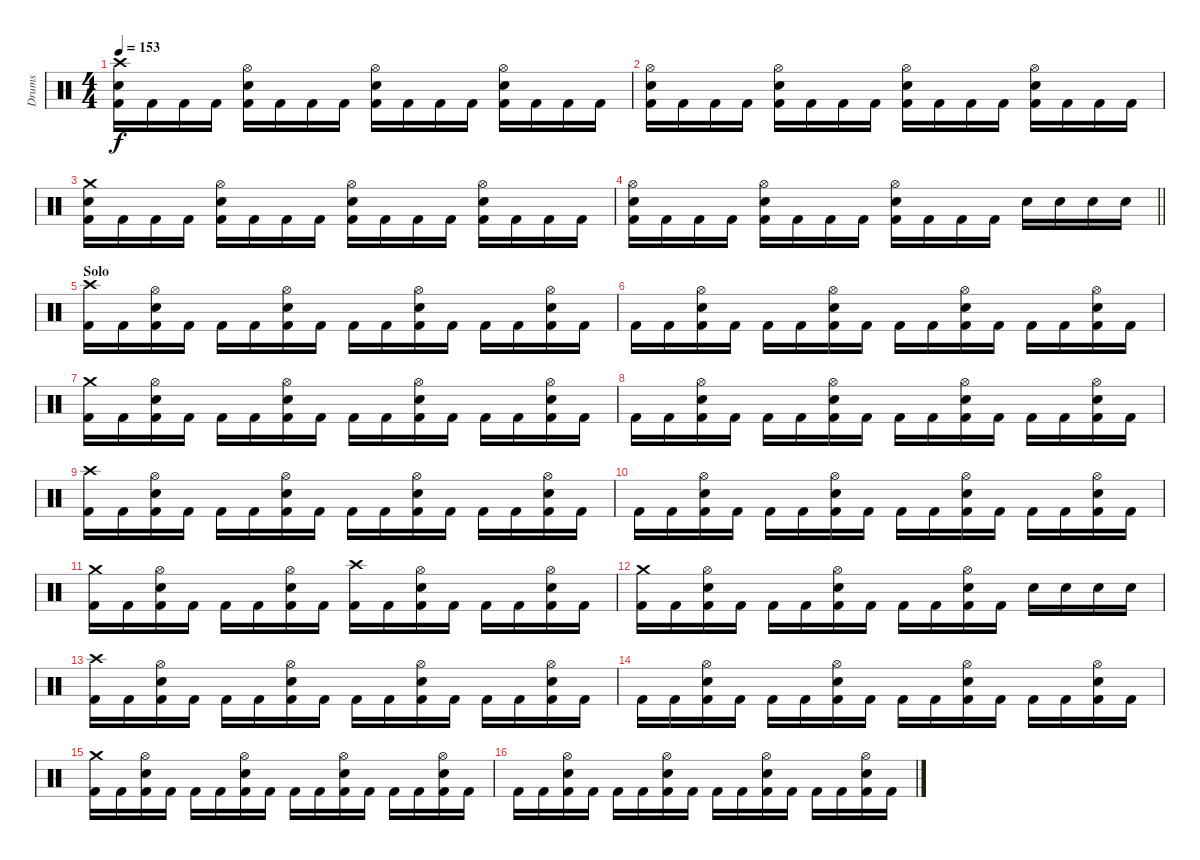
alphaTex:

\track ("Drums" "Drums") {instrument percussion}
\staff {score}
\articulation defaults
\ts (4 4)
\tempo 153
\clef neutral
\ks c
("Crash high (hit)" "Snare (hit) 2" "Kick (hit) 2").16{dy f} "Kick (hit) 2".16 "Kick (hit) 2".16 "Kick (hit) 2".16 ("Hi-Hat (open)" "Snare (hit) 2" "Kick (hit) 2").16 "Kick (hit) 2".16 "Kick (hit) 2".16 "Kick (hit) 2".16 ("Hi-Hat (open)" "Snare (hit) 2" "Kick (hit) 2").16 "Kick (hit) 2".16 "Kick (hit) 2".16 "Kick (hit) 2".16 ("Hi-Hat (open)" "Snare (hit) 2" "Kick (hit) 2").16 "Kick (hit) 2".16 "Kick (hit) 2".16 "Kick (hit) 2".16 |
("Hi-Hat (open)" "Snare (hit) 2" "Kick (hit) 2").16 "Kick (hit) 2".16 "Kick (hit) 2".16 "Kick (hit) 2".16 ("Hi-Hat (open)" "Snare (hit) 2" "Kick (hit) 2").16 "Kick (hit) 2".16 "Kick (hit) 2".16 "Kick (hit) 2".16 ("Hi-Hat (open)" "Snare (hit) 2" "Kick (hit) 2").16 "Kick (hit) 2".16 "Kick (hit) 2".16 "Kick (hit) 2".16 ("Hi-Hat (open)" "Snare (hit) 2" "Kick (hit) 2").16 "Kick (hit) 2".16 "Kick (hit) 2".16 "Kick (hit) 2".16 |
("Crash medium (hit)" "Snare (hit) 2" "Kick (hit) 2").16 "Kick (hit) 2".16 "Kick (hit) 2".16 "Kick (hit) 2".16 ("Hi-Hat (open)" "Snare (hit) 2" "Kick (hit) 2").16 "Kick (hit) 2".16 "Kick (hit) 2".16 "Kick (hit) 2".16 ("Hi-Hat (open)" "Snare (hit) 2" "Kick (hit) 2").16 "Kick (hit) 2".16 "Kick (hit) 2".16 "Kick (hit) 2".16 ("Hi-Hat (open)" "Snare (hit) 2" "Kick (hit) 2").16 "Kick (hit) 2".16 "Kick (hit) 2".16 "Kick (hit) 2".16 |
\barLineRight lightlight
("Hi-Hat (open)" "Snare (hit) 2" "Kick (hit) 2").16 "Kick (hit) 2".16 "Kick (hit) 2".16 "Kick (hit) 2".16 ("Hi-Hat (open)" "Snare (hit) 2" "Kick (hit) 2").16 "Kick (hit) 2".16 "Kick (hit) 2".16 "Kick (hit) 2".16 ("Hi-Hat (open)" "Snare (hit) 2" "Kick (hit) 2").16 "Kick (hit) 2".16 "Kick (hit) 2".16 "Kick (hit) 2".16 "Snare (hit) 2".16 "Snare (hit) 2".16 "Snare (hit) 2".16 "Snare (hit) 2".16 |
\section ("" "Solo")
("Crash high (hit)" "Kick (hit) 2").16 "Kick (hit) 2".16 ("Hi-Hat (open)" "Snare (hit) 2" "Kick (hit) 2").16 "Kick (hit) 2".16 "Kick (hit) 2".16 "Kick (hit) 2".16 ("Hi-Hat (open)" "Snare (hit) 2" "Kick (hit) 2").16 "Kick (hit) 2".16 "Kick (hit) 2".16 "Kick (hit) 2".16 ("Hi-Hat (open)" "Snare (hit) 2" "Kick (hit) 2").16 "Kick (hit) 2".16 "Kick (hit) 2".16 "Kick (hit) 2".16 ("Hi-Hat (open)" "Snare (hit) 2" "Kick (hit) 2").16 "Kick (hit) 2".16 |
"Kick (hit) 2".16 "Kick (hit) 2".16 ("Hi-Hat (open)" "Snare (hit) 2" "Kick (hit) 2").16 "Kick (hit) 2".16 "Kick (hit) 2".16 "Kick (hit) 2".16 ("Hi-Hat (open)" "Snare (hit) 2" "Kick (hit) 2").16 "Kick (hit) 2".16 "Kick (hit) 2".16 "Kick (hit) 2".16 ("Hi-Hat (open)" "Snare (hit) 2" "Kick (hit) 2").16 "Kick (hit) 2".16 "Kick (hit) 2".16 "Kick (hit) 2".16 ("Hi-Hat (open)" "Snare (hit) 2" "Kick (hit) 2").16 "Kick (hit) 2".16 |
("Crash medium (hit)" "Kick (hit) 2").16 "Kick (hit) 2".16 ("Hi-Hat (open)" "Snare (hit) 2" "Kick (hit) 2").16 "Kick (hit) 2".16 "Kick (hit) 2".16 "Kick (hit) 2".16 ("Hi-Hat (open)" "Snare (hit) 2" "Kick (hit) 2").16 "Kick (hit) 2".16 "Kick (hit) 2".16 "Kick (hit) 2".16 ("Hi-Hat (open)" "Snare (hit) 2" "Kick (hit) 2").16 "Kick (hit) 2".16 "Kick (hit) 2".16 "Kick (hit) 2".16 ("Hi-Hat (open)" "Snare (hit) 2" "Kick (hit) 2").16 "Kick (hit) 2".16 |
"Kick (hit) 2".16 "Kick (hit) 2".16 ("Hi-Hat (open)" "Snare (hit) 2" "Kick (hit) 2").16 "Kick (hit) 2".16 "Kick (hit) 2".16 "Kick (hit) 2".16 ("Hi-Hat (open)" "Snare (hit) 2" "Kick (hit) 2").16 "Kick (hit) 2".16 "Kick (hit) 2".16 "Kick (hit) 2".16 ("Hi-Hat (open)" "Snare (hit) 2" "Kick (hit) 2").16 "Kick (hit) 2".16 "Kick (hit) 2".16 "Kick (hit) 2".16 ("Hi-Hat (open)" "Snare (hit) 2" "Kick (hit) 2").16 "Kick (hit) 2".16 |
("Crash high (hit)" "Kick (hit) 2").16 "Kick (hit) 2".16 ("Hi-Hat (open)" "Snare (hit) 2" "Kick (hit) 2").16 "Kick (hit) 2".16 "Kick (hit) 2".16 "Kick (hit) 2".16 ("Hi-Hat (open)" "Snare (hit) 2" "Kick (hit) 2").16 "Kick (hit) 2".16 "Kick (hit) 2".16 "Kick (hit) 2".16 ("Hi-Hat (open)" "Snare (hit) 2" "Kick (hit) 2").16 "Kick (hit) 2".16 "Kick (hit) 2".16 "Kick (hit) 2".16 ("Hi-Hat (open)" "Snare (hit) 2" "Kick (hit) 2").16 "Kick (hit) 2".16 |
"Kick (hit) 2".16 "Kick (hit) 2".16 ("Hi-Hat (open)" "Snare (hit) 2" "Kick (hit) 2").16 "Kick (hit) 2".16 "Kick (hit) 2".16 "Kick (hit) 2".16 ("Hi-Hat (open)" "Snare (hit) 2" "Kick (hit) 2").16 "Kick (hit) 2".16 "Kick (hit) 2".16 "Kick (hit) 2".16 ("Hi-Hat (open)" "Snare (hit) 2" "Kick (hit) 2").16 "Kick (hit) 2".16 "Kick (hit) 2".16 "Kick (hit) 2".16 ("Hi-Hat (open)" "Snare (hit) 2" "Kick (hit) 2").16 "Kick (hit) 2".16 |
("Crash medium (hit)" "Kick (hit) 2").16 "Kick (hit) 2".16 ("Hi-Hat (open)" "Snare (hit) 2" "Kick (hit) 2").16 "Kick (hit) 2".16 "Kick (hit) 2".16 "Kick (hit) 2".16 ("Hi-Hat (open)" "Snare (hit) 2" "Kick (hit) 2").16 "Kick (hit) 2".16 ("Crash high (hit)" "Kick (hit) 2").16 "Kick (hit) 2".16 ("Hi-Hat (open)" "Snare (hit) 2" "Kick (hit) 2").16 "Kick (hit) 2".16 "Kick (hit) 2".16 "Kick (hit) 2".16 ("Hi-Hat (open)" "Snare (hit) 2" "Kick (hit) 2").16 "Kick (hit) 2".16 |
("Crash medium (hit)" "Kick (hit) 2").16 "Kick (hit) 2".16 ("Hi-Hat (open)" "Snare (hit) 2" "Kick (hit) 2").16 "Kick (hit) 2".16 "Kick (hit) 2".16 "Kick (hit) 2".16 ("Hi-Hat (open)" "Snare (hit) 2" "Kick (hit) 2").16 "Kick (hit) 2".16 "Kick (hit) 2".16 "Kick (hit) 2".16 ("Hi-Hat (open)" "Snare (hit) 2" "Kick (hit) 2").16 "Kick (hit) 2".16 "Snare (hit) 2".16 "Snare (hit) 2".16 "Snare (hit) 2".16 "Snare (hit) 2".16 |
("Crash high (hit)" "Kick (hit) 2").16 "Kick (hit) 2".16 ("Hi-Hat (open)" "Snare (hit) 2" "Kick (hit) 2").16 "Kick (hit) 2".16 "Kick (hit) 2".16 "Kick (hit) 2".16 ("Hi-Hat (open)" "Snare (hit) 2" "Kick (hit) 2").16 "Kick (hit) 2".16 "Kick (hit) 2".16 "Kick (hit) 2".16 ("Hi-Hat (open)" "Snare (hit) 2" "Kick (hit) 2").16 "Kick (hit) 2".16 "Kick (hit) 2".16 "Kick (hit) 2".16 ("Hi-Hat (open)" "Snare (hit) 2" "Kick (hit) 2").16 "Kick (hit) 2".16 |
"Kick (hit) 2".16 "Kick (hit) 2".16 ("Hi-Hat (open)" "Snare (hit) 2" "Kick (hit) 2").16 "Kick (hit) 2".16 "Kick (hit) 2".16 "Kick (hit) 2".16 ("Hi-Hat (open)" "Snare (hit) 2" "Kick (hit) 2").16 "Kick (hit) 2".16 "Kick (hit) 2".16 "Kick (hit) 2".16 ("Hi-Hat (open)" "Snare (hit) 2" "Kick (hit) 2").16 "Kick (hit) 2".16 "Kick (hit) 2".16 "Kick (hit) 2".16 ("Hi-Hat (open)" "Snare (hit) 2" "Kick (hit) 2").16 "Kick (hit) 2".16 |
("Crash medium (hit)" "Kick (hit) 2").16 "Kick (hit) 2".16 ("Hi-Hat (open)" "Snare (hit) 2" "Kick (hit) 2").16 "Kick (hit) 2".16 "Kick (hit) 2".16 "Kick (hit) 2".16 ("Hi-Hat (open)" "Snare (hit) 2" "Kick (hit) 2").16 "Kick (hit) 2".16 "Kick (hit) 2".16 "Kick (hit) 2".16 ("Hi-Hat (open)" "Snare (hit) 2" "Kick (hit) 2").16 "Kick (hit) 2".16 "Kick (hit) 2".16 "Kick (hit) 2".16 ("Hi-Hat (open)" "Snare (hit) 2" "Kick (hit) 2").16 "Kick (hit) 2".16 |
"Kick (hit) 2".16 "Kick (hit) 2".16 ("Hi-Hat (open)" "Snare (hit) 2" "Kick (hit) 2").16 "Kick (hit) 2".16 "Kick (hit) 2".16 "Kick (hit) 2".16 ("Hi-Hat (open)" "Snare (hit) 2" "Kick (hit) 2").16 "Kick (hit) 2".16 "Kick (hit) 2".16 "Kick (hit) 2".16 ("Hi-Hat (open)" "Snare (hit) 2" "Kick (hit) 2").16 "Kick (hit) 2".16 "Kick (hit) 2".16 "Kick (hit) 2".16 ("Hi-Hat (open)" "Snare (hit) 2" "Kick (hit) 2").16 "Kick (hit) 2".16
